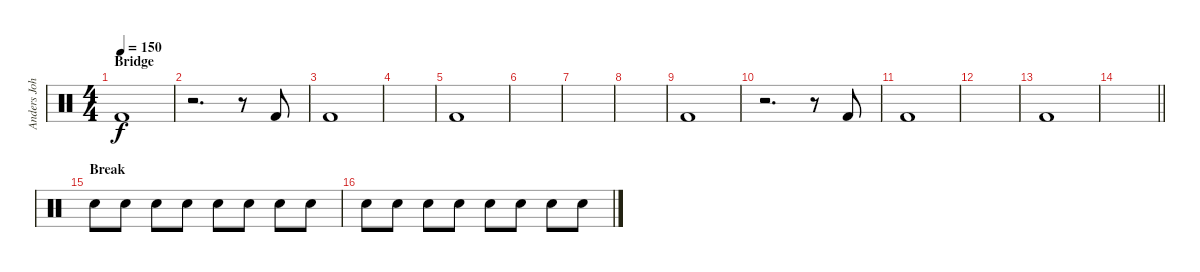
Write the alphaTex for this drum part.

\track ("Anders Johansson" "Anders Joh") {instrument percussion}
\staff {score}
\articulation defaults
\ts (4 4)
\section ("" "Bridge")
\tempo 150
\clef neutral
\ks c "Kick (hit) 2".1{dy f}
|
r.2{d} r.8 "Kick (hit) 2".8 |
"Kick (hit) 2".1 |
|
"Kick (hit) 2".1 |
|
|
|
"Kick (hit) 2".1 |
r.2{d} r.8 "Kick (hit) 2".8 |
"Kick (hit) 2".1 |
|
"Kick (hit) 2".1 |
\barLineRight lightlight
|
\section ("" "Break")
"Electric Snare (hit)".8 "Electric Snare (hit)".8 "Electric Snare (hit)".8 "Electric Snare (hit)".8 "Electric Snare (hit)".8 "Electric Snare (hit)".8 "Electric Snare (hit)".8 "Electric Snare (hit)".8 |
"Electric Snare (hit)".8 "Electric Snare (hit)".8 "Electric Snare (hit)".8 "Electric Snare (hit)".8 "Electric Snare (hit)".8 "Electric Snare (hit)".8 "Electric Snare (hit)".8 "Electric Snare (hit)".8
